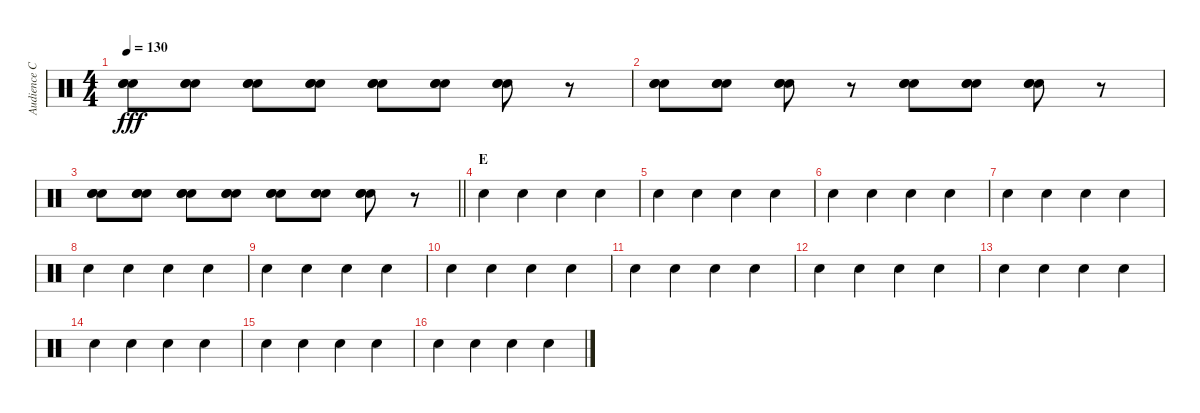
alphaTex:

\track ("Audience Claps" "Audience C") {instrument percussion}
\staff {score}
\articulation defaults
\ts (4 4)
\tempo 130
\clef neutral
\ks c
("Hand Clap (hit)" "Hand Clap (hit)" "Hand Clap (hit)").8{bd 60 dy fff} ("Hand Clap (hit)" "Hand Clap (hit)" "Hand Clap (hit)").8{bd 60} ("Hand Clap (hit)" "Hand Clap (hit)" "Hand Clap (hit)").8{bd 60} ("Hand Clap (hit)" "Hand Clap (hit)" "Hand Clap (hit)").8{bd 60} ("Hand Clap (hit)" "Hand Clap (hit)" "Hand Clap (hit)").8{bd 60} ("Hand Clap (hit)" "Hand Clap (hit)" "Hand Clap (hit)").8{bd 60} ("Hand Clap (hit)" "Hand Clap (hit)" "Hand Clap (hit)").8{bd 60} r.8 |
("Hand Clap (hit)" "Hand Clap (hit)" "Hand Clap (hit)").8{bd 60} ("Hand Clap (hit)" "Hand Clap (hit)" "Hand Clap (hit)").8{bd 60} ("Hand Clap (hit)" "Hand Clap (hit)" "Hand Clap (hit)").8{bd 60} r.8 ("Hand Clap (hit)" "Hand Clap (hit)" "Hand Clap (hit)").8{bd 60} ("Hand Clap (hit)" "Hand Clap (hit)" "Hand Clap (hit)").8{bd 60} ("Hand Clap (hit)" "Hand Clap (hit)" "Hand Clap (hit)").8{bd 60} r.8 |
\barLineRight lightlight
("Hand Clap (hit)" "Hand Clap (hit)" "Hand Clap (hit)").8{bd 60} ("Hand Clap (hit)" "Hand Clap (hit)" "Hand Clap (hit)").8{bd 60} ("Hand Clap (hit)" "Hand Clap (hit)" "Hand Clap (hit)").8{bd 60} ("Hand Clap (hit)" "Hand Clap (hit)" "Hand Clap (hit)").8{bd 60} ("Hand Clap (hit)" "Hand Clap (hit)" "Hand Clap (hit)").8{bd 60} ("Hand Clap (hit)" "Hand Clap (hit)" "Hand Clap (hit)").8{bd 60} ("Hand Clap (hit)" "Hand Clap (hit)" "Hand Clap (hit)").8{bd 60} r.8 |
\section ("" "E")
"Hand Clap (hit)".4 "Hand Clap (hit)".4 "Hand Clap (hit)".4 "Hand Clap (hit)".4 |
"Hand Clap (hit)".4 "Hand Clap (hit)".4 "Hand Clap (hit)".4 "Hand Clap (hit)".4 |
"Hand Clap (hit)".4 "Hand Clap (hit)".4 "Hand Clap (hit)".4 "Hand Clap (hit)".4 |
"Hand Clap (hit)".4 "Hand Clap (hit)".4 "Hand Clap (hit)".4 "Hand Clap (hit)".4 |
"Hand Clap (hit)".4 "Hand Clap (hit)".4 "Hand Clap (hit)".4 "Hand Clap (hit)".4 |
"Hand Clap (hit)".4 "Hand Clap (hit)".4 "Hand Clap (hit)".4 "Hand Clap (hit)".4 |
"Hand Clap (hit)".4 "Hand Clap (hit)".4 "Hand Clap (hit)".4 "Hand Clap (hit)".4 |
"Hand Clap (hit)".4 "Hand Clap (hit)".4 "Hand Clap (hit)".4 "Hand Clap (hit)".4 |
"Hand Clap (hit)".4 "Hand Clap (hit)".4 "Hand Clap (hit)".4 "Hand Clap (hit)".4 |
"Hand Clap (hit)".4 "Hand Clap (hit)".4 "Hand Clap (hit)".4 "Hand Clap (hit)".4 |
"Hand Clap (hit)".4 "Hand Clap (hit)".4 "Hand Clap (hit)".4 "Hand Clap (hit)".4 |
"Hand Clap (hit)".4 "Hand Clap (hit)".4 "Hand Clap (hit)".4 "Hand Clap (hit)".4 |
"Hand Clap (hit)".4 "Hand Clap (hit)".4 "Hand Clap (hit)".4 "Hand Clap (hit)".4
